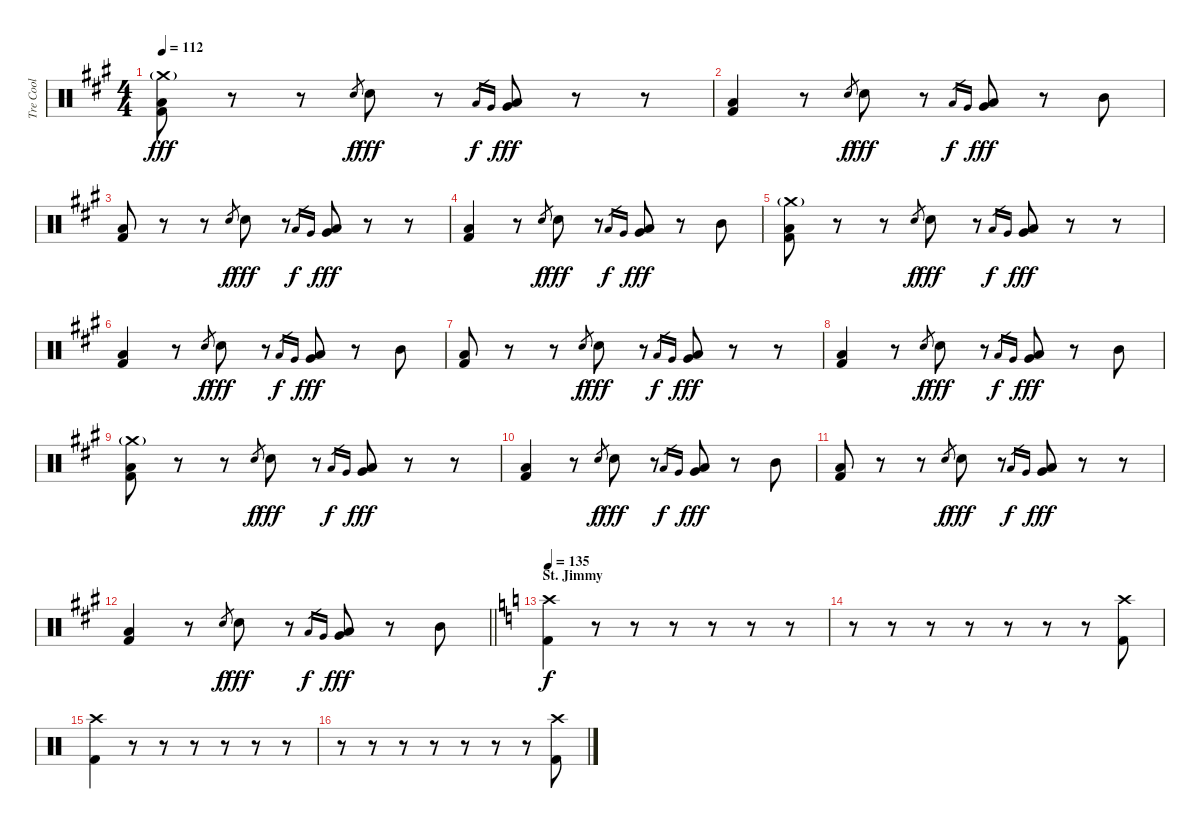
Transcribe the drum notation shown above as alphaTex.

\track ("Tre Cool" "Tre Cool") {instrument percussion}
\staff {score}
\articulation defaults
\ts (4 4)
\tempo 112
\clef neutral
\ks a
("Crash medium (hit)"{g} "Low Floor Tom (hit)" "Kick (hit) 2").8{dy fff} r.8 r.8 "Electric Snare (hit)".8{gr dy f} "Electric Snare (hit)".8{dy fff} r.8 "Low Floor Tom (hit)".16{gr dy f} "Very Low Tom (hit)".16{gr} ("Low Floor Tom (hit)" "Very Low Tom (hit)").8{dy fff} r.8 r.8 |
("Low Floor Tom (hit)" "Kick (hit) 2").4 r.8 "Electric Snare (hit)".8{gr dy f} "Electric Snare (hit)".8{dy fff} r.8 "Low Floor Tom (hit)".16{gr dy f} "Very Low Tom (hit)".16{gr} ("Low Floor Tom (hit)" "Very Low Tom (hit)").8{dy fff} r.8 "Mid Tom (hit)".8 |
("Low Floor Tom (hit)" "Kick (hit) 2").8 r.8 r.8 "Electric Snare (hit)".8{gr dy f} "Electric Snare (hit)".8{dy fff} r.8 "Low Floor Tom (hit)".16{gr dy f} "Very Low Tom (hit)".16{gr} ("Low Floor Tom (hit)" "Very Low Tom (hit)").8{dy fff} r.8 r.8 |
("Low Floor Tom (hit)" "Kick (hit) 2").4 r.8 "Electric Snare (hit)".8{gr dy f} "Electric Snare (hit)".8{dy fff} r.8 "Low Floor Tom (hit)".16{gr dy f} "Very Low Tom (hit)".16{gr} ("Low Floor Tom (hit)" "Very Low Tom (hit)").8{dy fff} r.8 "Mid Tom (hit)".8 |
("Crash medium (hit)"{g} "Low Floor Tom (hit)" "Kick (hit) 2").8 r.8 r.8 "Electric Snare (hit)".8{gr dy f} "Electric Snare (hit)".8{dy fff} r.8 "Low Floor Tom (hit)".16{gr dy f} "Very Low Tom (hit)".16{gr} ("Low Floor Tom (hit)" "Very Low Tom (hit)").8{dy fff} r.8 r.8 |
("Low Floor Tom (hit)" "Kick (hit) 2").4 r.8 "Electric Snare (hit)".8{gr dy f} "Electric Snare (hit)".8{dy fff} r.8 "Low Floor Tom (hit)".16{gr dy f} "Very Low Tom (hit)".16{gr} ("Low Floor Tom (hit)" "Very Low Tom (hit)").8{dy fff} r.8 "Mid Tom (hit)".8 |
("Low Floor Tom (hit)" "Kick (hit) 2").8 r.8 r.8 "Electric Snare (hit)".8{gr dy f} "Electric Snare (hit)".8{dy fff} r.8 "Low Floor Tom (hit)".16{gr dy f} "Very Low Tom (hit)".16{gr} ("Low Floor Tom (hit)" "Very Low Tom (hit)").8{dy fff} r.8 r.8 |
("Low Floor Tom (hit)" "Kick (hit) 2").4 r.8 "Electric Snare (hit)".8{gr dy f} "Electric Snare (hit)".8{dy fff} r.8 "Low Floor Tom (hit)".16{gr dy f} "Very Low Tom (hit)".16{gr} ("Low Floor Tom (hit)" "Very Low Tom (hit)").8{dy fff} r.8 "Mid Tom (hit)".8 |
("Crash medium (hit)"{g} "Low Floor Tom (hit)" "Kick (hit) 2").8 r.8 r.8 "Electric Snare (hit)".8{gr dy f} "Electric Snare (hit)".8{dy fff} r.8 "Low Floor Tom (hit)".16{gr dy f} "Very Low Tom (hit)".16{gr} ("Low Floor Tom (hit)" "Very Low Tom (hit)").8{dy fff} r.8 r.8 |
("Low Floor Tom (hit)" "Kick (hit) 2").4 r.8 "Electric Snare (hit)".8{gr dy f} "Electric Snare (hit)".8{dy fff} r.8 "Low Floor Tom (hit)".16{gr dy f} "Very Low Tom (hit)".16{gr} ("Low Floor Tom (hit)" "Very Low Tom (hit)").8{dy fff} r.8 "Mid Tom (hit)".8 |
("Low Floor Tom (hit)" "Kick (hit) 2").8 r.8 r.8 "Electric Snare (hit)".8{gr dy f} "Electric Snare (hit)".8{dy fff} r.8 "Low Floor Tom (hit)".16{gr dy f} "Very Low Tom (hit)".16{gr} ("Low Floor Tom (hit)" "Very Low Tom (hit)").8{dy fff} r.8 r.8 |
\barLineRight lightlight
("Low Floor Tom (hit)" "Kick (hit) 2").4 r.8 "Electric Snare (hit)".8{gr dy f} "Electric Snare (hit)".8{dy fff} r.8 "Low Floor Tom (hit)".16{gr dy f} "Very Low Tom (hit)".16{gr} ("Low Floor Tom (hit)" "Very Low Tom (hit)").8{dy fff} r.8 "Mid Tom (hit)".8 |
\section ("" "St. Jimmy")
\tempo 135
\ks c
("Kick (hit) 2" "Crash high (hit)").4{dy f} r.8{volume 0} r.8 r.8 r.8 r.8 r.8 |
r.8 r.8 r.8 r.8 r.8 r.8 r.8 ("Kick (hit) 2" "Crash high (hit)").8{volume 13} |
("Kick (hit) 2" "Crash high (hit)").4 r.8{volume 0} r.8 r.8 r.8 r.8 r.8 |
r.8 r.8 r.8 r.8 r.8 r.8 r.8 ("Kick (hit) 2" "Crash high (hit)").8{volume 13}
